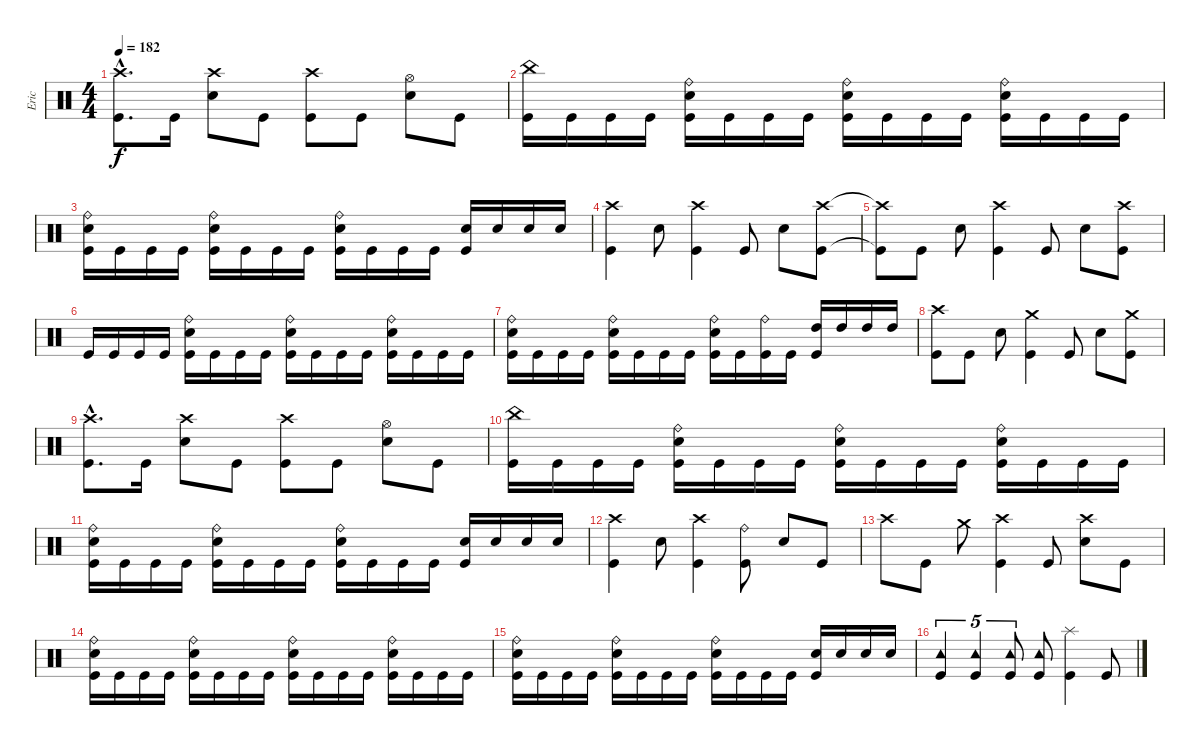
\track ("Eric" "Eric") {instrument percussion}
\staff {score}
\articulation defaults
\ts (4 4)
\tempo 182
\clef neutral
\ks c
("Crash high (hit)"{hac} "Kick (hit)"{hac}).8{d dy f} "Kick (hit)".16 ("Crash high (hit)" "Snare (hit) 2").8 "Kick (hit)".8 ("Crash high (hit)" "Kick (hit)").8 "Kick (hit)".8 ("Hi-Hat (open)" "Snare (hit) 2").8 "Kick (hit)".8 |
("China (hit)" "Kick (hit)").16 "Kick (hit)".16 "Kick (hit)".16 "Kick (hit)".16 ("Ride (bell)" "Snare (hit) 2" "Kick (hit)").16 "Kick (hit)".16 "Kick (hit)".16 "Kick (hit)".16 ("Ride (bell)" "Snare (hit) 2" "Kick (hit)").16 "Kick (hit)".16 "Kick (hit)".16 "Kick (hit)".16 ("Ride (bell)" "Snare (hit) 2" "Kick (hit)").16 "Kick (hit)".16 "Kick (hit)".16 "Kick (hit)".16 |
("Ride (bell)" "Snare (hit) 2" "Kick (hit)").16 "Kick (hit)".16 "Kick (hit)".16 "Kick (hit)".16 ("Ride (bell)" "Snare (hit) 2" "Kick (hit)").16 "Kick (hit)".16 "Kick (hit)".16 "Kick (hit)".16 ("Ride (bell)" "Snare (hit) 2" "Kick (hit)").16 "Kick (hit)".16 "Kick (hit)".16 "Kick (hit)".16 ("Snare (hit) 2" "Kick (hit)").16 "Snare (hit) 2".16 "Snare (hit) 2".16 "Snare (hit) 2".16 |
("Crash high (hit)" "Kick (hit)").4 "Snare (hit) 2".8 ("Crash high (hit)" "Kick (hit)").4 "Kick (hit)".8 "Snare (hit) 2".8 ("Crash high (hit)" "Kick (hit)").8 |
("Crash high (hit)"{t} "Kick (hit)"{t}).8 "Kick (hit)".8 "Snare (hit) 2".8 ("Crash high (hit)" "Kick (hit)").4 "Kick (hit)".8 "Snare (hit) 2".8 ("Crash high (hit)" "Kick (hit)").8 |
"Kick (hit)".16 "Kick (hit)".16 "Kick (hit)".16 "Kick (hit)".16 ("Ride (bell)" "Snare (hit) 2" "Kick (hit)").16 "Kick (hit)".16 "Kick (hit)".16 "Kick (hit)".16 ("Ride (bell)" "Snare (hit) 2" "Kick (hit)").16 "Kick (hit)".16 "Kick (hit)".16 "Kick (hit)".16 ("Ride (bell)" "Snare (hit) 2" "Kick (hit)").16 "Kick (hit)".16 "Kick (hit)".16 "Kick (hit)".16 |
("Ride (bell)" "Snare (hit) 2" "Kick (hit)").16 "Kick (hit)".16 "Kick (hit)".16 "Kick (hit)".16 ("Ride (bell)" "Snare (hit) 2" "Kick (hit)").16 "Kick (hit)".16 "Kick (hit)".16 "Kick (hit)".16 ("Ride (bell)" "Snare (hit) 2" "Kick (hit)").16 "Kick (hit)".16 ("Ride (bell)" "Kick (hit)").16 "Kick (hit)".16 ("High Tom (hit)" "Kick (hit)").16 "High Tom (hit)".16 "High Tom (hit)".16 "High Tom (hit)".16 |
("Crash high (hit)" "Kick (hit)").8 "Kick (hit)".8 "Snare (hit) 2".8 ("Crash medium (hit)" "Kick (hit)").4 "Kick (hit)".8 "Snare (hit) 2".8 ("Crash medium (hit)" "Kick (hit)").8 |
("Crash high (hit)"{hac} "Kick (hit)"{hac}).8{d} "Kick (hit)".16 ("Crash high (hit)" "Snare (hit) 2").8 "Kick (hit)".8 ("Crash high (hit)" "Kick (hit)").8 "Kick (hit)".8 ("Hi-Hat (open)" "Snare (hit) 2").8 "Kick (hit)".8 |
("China (hit)" "Kick (hit)").16 "Kick (hit)".16 "Kick (hit)".16 "Kick (hit)".16 ("Ride (bell)" "Snare (hit) 2" "Kick (hit)").16 "Kick (hit)".16 "Kick (hit)".16 "Kick (hit)".16 ("Ride (bell)" "Snare (hit) 2" "Kick (hit)").16 "Kick (hit)".16 "Kick (hit)".16 "Kick (hit)".16 ("Ride (bell)" "Snare (hit) 2" "Kick (hit)").16 "Kick (hit)".16 "Kick (hit)".16 "Kick (hit)".16 |
("Ride (bell)" "Snare (hit) 2" "Kick (hit)").16 "Kick (hit)".16 "Kick (hit)".16 "Kick (hit)".16 ("Ride (bell)" "Snare (hit) 2" "Kick (hit)").16 "Kick (hit)".16 "Kick (hit)".16 "Kick (hit)".16 ("Ride (bell)" "Snare (hit) 2" "Kick (hit)").16 "Kick (hit)".16 "Kick (hit)".16 "Kick (hit)".16 ("Snare (hit) 2" "Kick (hit)").16 "Snare (hit) 2".16 "Snare (hit) 2".16 "Snare (hit) 2".16 |
("Crash high (hit)" "Kick (hit)").4 "Snare (hit) 2".8 ("Crash high (hit)" "Kick (hit)").4 ("Ride (bell)" "Kick (hit)").8 "Snare (hit) 2".8 "Kick (hit)".8 |
"Crash high (hit)".8 "Kick (hit)".8 "Crash medium (hit)".8 ("Crash high (hit)" "Kick (hit)").4 "Kick (hit)".8 ("Crash high (hit)" "Snare (hit) 2").8 "Kick (hit)".8 |
("Ride (bell)" "Snare (hit) 2" "Kick (hit)").16 "Kick (hit)".16 "Kick (hit)".16 "Kick (hit)".16 ("Ride (bell)" "Snare (hit) 2" "Kick (hit)").16 "Kick (hit)".16 "Kick (hit)".16 "Kick (hit)".16 ("Ride (bell)" "Snare (hit) 2" "Kick (hit)").16 "Kick (hit)".16 "Kick (hit)".16 "Kick (hit)".16 ("Ride (bell)" "Snare (hit) 2" "Kick (hit)").16 "Kick (hit)".16 "Kick (hit)".16 "Kick (hit)".16 |
("Ride (bell)" "Snare (hit) 2" "Kick (hit)").16 "Kick (hit)".16 "Kick (hit)".16 "Kick (hit)".16 ("Ride (bell)" "Snare (hit) 2" "Kick (hit)").16 "Kick (hit)".16 "Kick (hit)".16 "Kick (hit)".16 ("Ride (bell)" "Snare (hit) 2" "Kick (hit)").16 "Kick (hit)".16 "Kick (hit)".16 "Kick (hit)".16 ("Snare (hit) 2" "Kick (hit)").16 "Snare (hit) 2".16 "Snare (hit) 2".16 "Snare (hit) 2".16 |
("Tambourine (hit)" "Kick (hit)").4{tu (5 4)} ("Tambourine (hit)" "Kick (hit)").4{tu (5 4)} ("Tambourine (hit)" "Kick (hit)").8{tu (5 4)} ("Tambourine (hit)" "Kick (hit)").8 ("Splash (hit)" "Kick (hit)").4 "Kick (hit)".8
